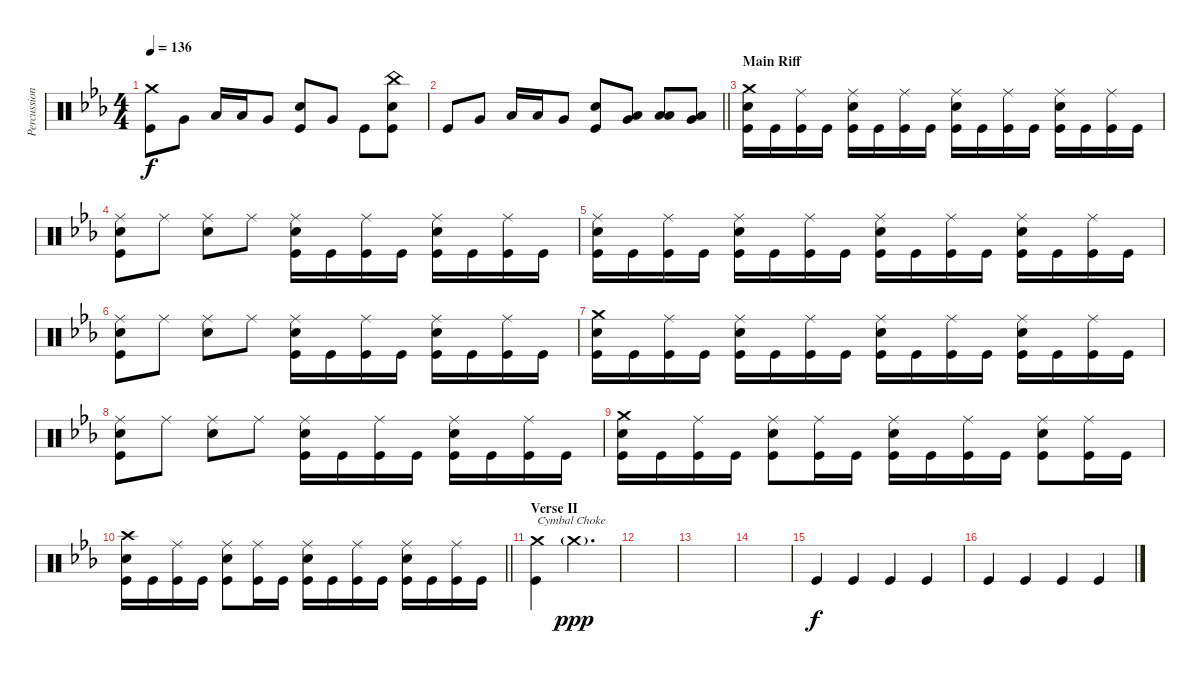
\track ("Percussion" "Percussion") {instrument percussion}
\staff {score}
\articulation defaults
\ts (4 4)
\tempo 136
\clef neutral
\ks eb
("Crash medium (hit)" "Kick (hit)").8{dy f} "Very Low Tom (hit)".8 "Low Tom (hit)".16 "Low Tom (hit)".16 "Very Low Tom (hit)".8 ("Electric Snare (hit)" "Kick (hit)").8 "Very Low Tom (hit)".8 "Kick (hit)".8 ("China (hit)" "Electric Snare (hit)" "Kick (hit)").8 |
\barLineRight lightlight "Kick (hit)".8 "Very Low Tom (hit)".8 "Low Tom (hit)".16 "Low Tom (hit)".16 "Very Low Tom (hit)".8
("Electric Snare (hit)" "Kick (hit)").8 ("Low Tom (hit)" "Very Low Tom (hit)").8 ("Low Tom (hit)" "Low Tom (hit)").8 ("Low Tom (hit)" "Very Low Tom (hit)").8 |
\section ("" "Main Riff")
("Crash medium (hit)" "Electric Snare (hit)" "Kick (hit)").16 "Kick (hit)".16 ("Ride (middle)" "Kick (hit)").16 "Kick (hit)".16 ("Ride (middle)" "Electric Snare (hit)" "Kick (hit)").16 "Kick (hit)".16 ("Ride (middle)" "Kick (hit)").16 "Kick (hit)".16 ("Ride (middle)" "Electric Snare (hit)" "Kick (hit)").16 "Kick (hit)".16 ("Ride (middle)" "Kick (hit)").16 "Kick (hit)".16 ("Ride (middle)" "Electric Snare (hit)" "Kick (hit)").16 "Kick (hit)".16 ("Ride (middle)" "Kick (hit)").16 "Kick (hit)".16 |
("Ride (middle)" "Electric Snare (hit)" "Kick (hit)").8 "Ride (middle)".8 ("Ride (middle)" "Electric Snare (hit)").8 "Ride (middle)".8 ("Ride (middle)" "Electric Snare (hit)" "Kick (hit)").16 "Kick (hit)".16 ("Ride (middle)" "Kick (hit)").16 "Kick (hit)".16 ("Ride (middle)" "Electric Snare (hit)" "Kick (hit)").16 "Kick (hit)".16 ("Ride (middle)" "Kick (hit)").16 "Kick (hit)".16 |
("Ride (middle)" "Electric Snare (hit)" "Kick (hit)").16 "Kick (hit)".16 ("Ride (middle)" "Kick (hit)").16 "Kick (hit)".16 ("Ride (middle)" "Electric Snare (hit)" "Kick (hit)").16 "Kick (hit)".16 ("Ride (middle)" "Kick (hit)").16 "Kick (hit)".16 ("Ride (middle)" "Electric Snare (hit)" "Kick (hit)").16 "Kick (hit)".16 ("Ride (middle)" "Kick (hit)").16 "Kick (hit)".16 ("Ride (middle)" "Electric Snare (hit)" "Kick (hit)").16 "Kick (hit)".16 ("Ride (middle)" "Kick (hit)").16 "Kick (hit)".16 |
("Ride (middle)" "Electric Snare (hit)" "Kick (hit)").8 "Ride (middle)".8 ("Ride (middle)" "Electric Snare (hit)").8 "Ride (middle)".8 ("Ride (middle)" "Electric Snare (hit)" "Kick (hit)").16 "Kick (hit)".16 ("Ride (middle)" "Kick (hit)").16 "Kick (hit)".16 ("Ride (middle)" "Electric Snare (hit)" "Kick (hit)").16 "Kick (hit)".16 ("Ride (middle)" "Kick (hit)").16 "Kick (hit)".16 |
("Crash medium (hit)" "Electric Snare (hit)" "Kick (hit)").16 "Kick (hit)".16 ("Ride (middle)" "Kick (hit)").16 "Kick (hit)".16 ("Ride (middle)" "Electric Snare (hit)" "Kick (hit)").16 "Kick (hit)".16 ("Ride (middle)" "Kick (hit)").16 "Kick (hit)".16 ("Ride (middle)" "Electric Snare (hit)" "Kick (hit)").16 "Kick (hit)".16 ("Ride (middle)" "Kick (hit)").16 "Kick (hit)".16 ("Ride (middle)" "Electric Snare (hit)" "Kick (hit)").16 "Kick (hit)".16 ("Ride (middle)" "Kick (hit)").16 "Kick (hit)".16 |
("Ride (middle)" "Electric Snare (hit)" "Kick (hit)").8 "Ride (middle)".8 ("Ride (middle)" "Electric Snare (hit)").8 "Ride (middle)".8 ("Ride (middle)" "Electric Snare (hit)" "Kick (hit)").16 "Kick (hit)".16 ("Ride (middle)" "Kick (hit)").16 "Kick (hit)".16 ("Ride (middle)" "Electric Snare (hit)" "Kick (hit)").16 "Kick (hit)".16 ("Ride (middle)" "Kick (hit)").16 "Kick (hit)".16 |
("Crash medium (hit)" "Electric Snare (hit)" "Kick (hit)").16 "Kick (hit)".16 ("Ride (middle)" "Kick (hit)").16 "Kick (hit)".16 ("Ride (middle)" "Electric Snare (hit)" "Kick (hit)").8 ("Ride (middle)" "Kick (hit)").16 "Kick (hit)".16 ("Ride (middle)" "Electric Snare (hit)" "Kick (hit)").16 "Kick (hit)".16 ("Ride (middle)" "Kick (hit)").16 "Kick (hit)".16 ("Ride (middle)" "Electric Snare (hit)" "Kick (hit)").8 ("Ride (middle)" "Kick (hit)").16 "Kick (hit)".16 |
\barLineRight lightlight
("Crash high (hit)" "Electric Snare (hit)" "Kick (hit)").16 "Kick (hit)".16 ("Ride (middle)" "Kick (hit)").16 "Kick (hit)".16 ("Ride (middle)" "Electric Snare (hit)" "Kick (hit)").8 ("Ride (middle)" "Kick (hit)").16 "Kick (hit)".16 ("Ride (middle)" "Electric Snare (hit)" "Kick (hit)").16 "Kick (hit)".16 ("Ride (middle)" "Kick (hit)").16 "Kick (hit)".16 ("Ride (middle)" "Electric Snare (hit)" "Kick (hit)").16 "Kick (hit)".16 ("Ride (middle)" "Kick (hit)").16 "Kick (hit)".16 |
\section ("" "Verse II")
("Crash medium (hit)" "Kick (hit)").4{txt "Cymbal Choke"} "Crash medium (hit)"{g}.2{d dy ppp volume 0} |
|
|
|
"Kick (hit)".4{dy f volume 13} "Kick (hit)".4 "Kick (hit)".4 "Kick (hit)".4 |
"Kick (hit)".4 "Kick (hit)".4 "Kick (hit)".4 "Kick (hit)".4
